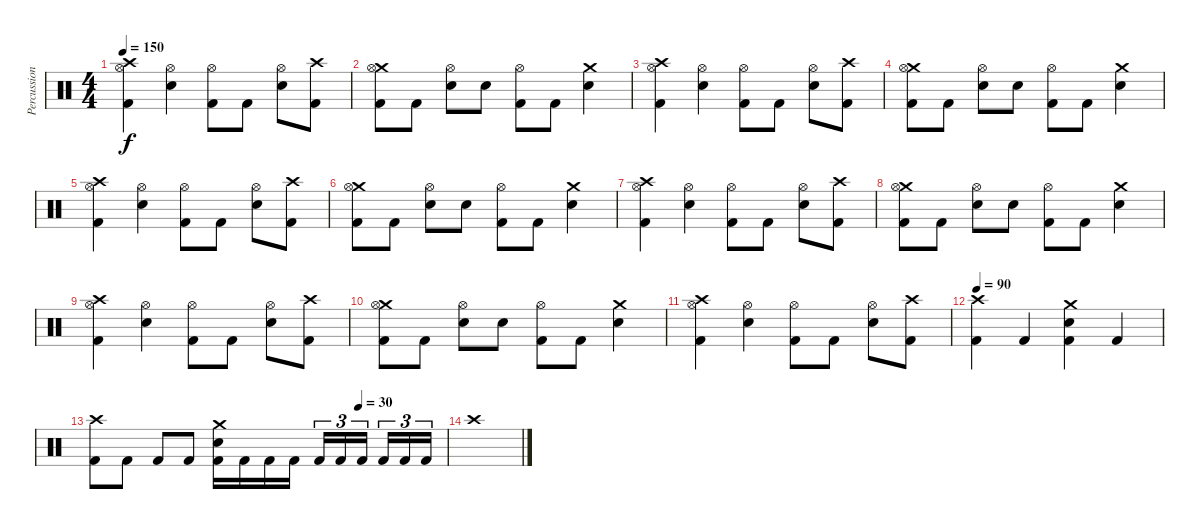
\track ("Percussion" "Percussion") {instrument percussion}
\staff {score}
\articulation defaults
\ts (4 4)
\tempo 150
\clef neutral
\ks c
("Crash high (hit)" "Hi-Hat (open)" "Kick (hit) 2").4{dy f} ("Hi-Hat (open)" "Snare (hit) 2").4 ("Hi-Hat (open)" "Kick (hit) 2").8 "Kick (hit) 2".8 ("Hi-Hat (open)" "Snare (hit) 2").8 ("Crash high (hit)" "Kick (hit) 2").8 |
("Crash medium (hit)" "Hi-Hat (open)" "Kick (hit) 2").8 "Kick (hit) 2".8 ("Hi-Hat (open)" "Snare (hit) 2").8 "Snare (hit) 2".8 ("Hi-Hat (open)" "Kick (hit) 2").8 "Kick (hit) 2".8 ("Crash medium (hit)" "Snare (hit) 2").4 |
("Crash high (hit)" "Hi-Hat (open)" "Kick (hit) 2").4 ("Hi-Hat (open)" "Snare (hit) 2").4 ("Hi-Hat (open)" "Kick (hit) 2").8 "Kick (hit) 2".8 ("Hi-Hat (open)" "Snare (hit) 2").8 ("Crash high (hit)" "Kick (hit) 2").8 |
("Crash medium (hit)" "Hi-Hat (open)" "Kick (hit) 2").8 "Kick (hit) 2".8 ("Hi-Hat (open)" "Snare (hit) 2").8 "Snare (hit) 2".8 ("Hi-Hat (open)" "Kick (hit) 2").8 "Kick (hit) 2".8 ("Crash medium (hit)" "Snare (hit) 2").4 |
("Crash high (hit)" "Hi-Hat (open)" "Kick (hit) 2").4 ("Hi-Hat (open)" "Snare (hit) 2").4 ("Hi-Hat (open)" "Kick (hit) 2").8 "Kick (hit) 2".8 ("Hi-Hat (open)" "Snare (hit) 2").8 ("Crash high (hit)" "Kick (hit) 2").8 |
("Crash medium (hit)" "Hi-Hat (open)" "Kick (hit) 2").8 "Kick (hit) 2".8 ("Hi-Hat (open)" "Snare (hit) 2").8 "Snare (hit) 2".8 ("Hi-Hat (open)" "Kick (hit) 2").8 "Kick (hit) 2".8 ("Crash medium (hit)" "Snare (hit) 2").4 |
("Crash high (hit)" "Hi-Hat (open)" "Kick (hit) 2").4 ("Hi-Hat (open)" "Snare (hit) 2").4 ("Hi-Hat (open)" "Kick (hit) 2").8 "Kick (hit) 2".8 ("Hi-Hat (open)" "Snare (hit) 2").8 ("Crash high (hit)" "Kick (hit) 2").8 |
("Crash medium (hit)" "Hi-Hat (open)" "Kick (hit) 2").8 "Kick (hit) 2".8 ("Hi-Hat (open)" "Snare (hit) 2").8 "Snare (hit) 2".8 ("Hi-Hat (open)" "Kick (hit) 2").8 "Kick (hit) 2".8 ("Crash medium (hit)" "Snare (hit) 2").4 |
("Crash high (hit)" "Hi-Hat (open)" "Kick (hit) 2").4 ("Hi-Hat (open)" "Snare (hit) 2").4 ("Hi-Hat (open)" "Kick (hit) 2").8 "Kick (hit) 2".8 ("Hi-Hat (open)" "Snare (hit) 2").8 ("Crash high (hit)" "Kick (hit) 2").8 |
("Crash medium (hit)" "Hi-Hat (open)" "Kick (hit) 2").8 "Kick (hit) 2".8 ("Hi-Hat (open)" "Snare (hit) 2").8 "Snare (hit) 2".8 ("Hi-Hat (open)" "Kick (hit) 2").8 "Kick (hit) 2".8 ("Crash medium (hit)" "Snare (hit) 2").4 |
("Crash high (hit)" "Hi-Hat (open)" "Kick (hit) 2").4 ("Hi-Hat (open)" "Snare (hit) 2").4 ("Hi-Hat (open)" "Kick (hit) 2").8 "Kick (hit) 2".8 ("Hi-Hat (open)" "Snare (hit) 2").8 ("Crash high (hit)" "Kick (hit) 2").8 |
\tempo 90
("Crash high (hit)" "Kick (hit) 2").4 "Kick (hit) 2".4 ("Crash medium (hit)" "Snare (hit) 2" "Kick (hit) 2").4 "Kick (hit) 2".4 |
\tempo (30 0.75)
("Crash high (hit)" "Kick (hit) 2").8 "Kick (hit) 2".8 "Kick (hit) 2".8 "Kick (hit) 2".8 ("Crash medium (hit)" "Snare (hit) 2" "Kick (hit) 2").16 "Kick (hit) 2".16 "Kick (hit) 2".16 "Kick (hit) 2".16 "Kick (hit) 2".16{tu (3 2)} "Kick (hit) 2".16{tu (3 2)} "Kick (hit) 2".16{tu (3 2)} "Kick (hit) 2".16{tu (3 2)} "Kick (hit) 2".16{tu (3 2)} "Kick (hit) 2".16{tu (3 2)} |
"Crash high (hit)".1
